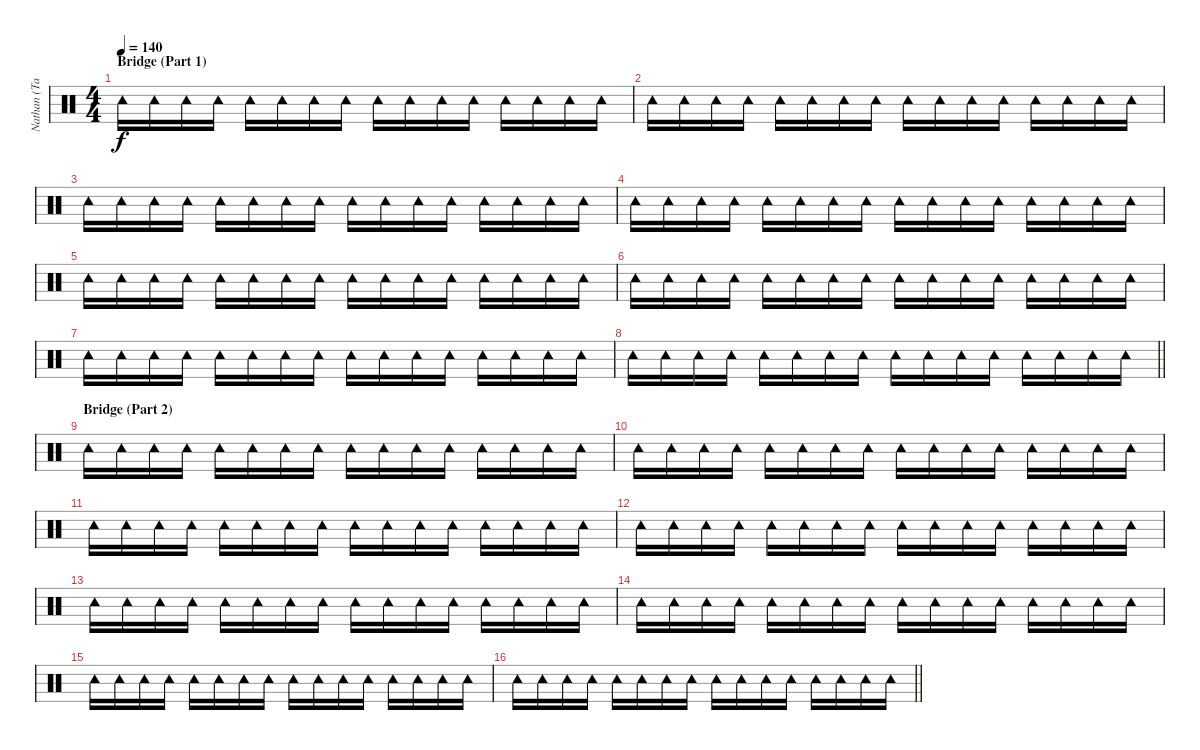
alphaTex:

\track ("Nathan (Tambourine)" "Nathan (Ta") {instrument percussion}
\staff {score}
\articulation defaults
\ts (4 4)
\section ("" "Bridge (Part 1)")
\tempo 140
\clef neutral
\ks c "Tambourine (hit)".16{dy f} "Tambourine (hit)".16 "Tambourine (hit)".16 "Tambourine (hit)".16 "Tambourine (hit)".16 "Tambourine (hit)".16 "Tambourine (hit)".16 "Tambourine (hit)".16 "Tambourine (hit)".16 "Tambourine (hit)".16 "Tambourine (hit)".16 "Tambourine (hit)".16 "Tambourine (hit)".16 "Tambourine (hit)".16 "Tambourine (hit)".16 "Tambourine (hit)".16
|
"Tambourine (hit)".16 "Tambourine (hit)".16 "Tambourine (hit)".16 "Tambourine (hit)".16 "Tambourine (hit)".16 "Tambourine (hit)".16 "Tambourine (hit)".16 "Tambourine (hit)".16 "Tambourine (hit)".16 "Tambourine (hit)".16 "Tambourine (hit)".16 "Tambourine (hit)".16 "Tambourine (hit)".16 "Tambourine (hit)".16 "Tambourine (hit)".16 "Tambourine (hit)".16 |
"Tambourine (hit)".16 "Tambourine (hit)".16 "Tambourine (hit)".16 "Tambourine (hit)".16 "Tambourine (hit)".16 "Tambourine (hit)".16 "Tambourine (hit)".16 "Tambourine (hit)".16 "Tambourine (hit)".16 "Tambourine (hit)".16 "Tambourine (hit)".16 "Tambourine (hit)".16 "Tambourine (hit)".16 "Tambourine (hit)".16 "Tambourine (hit)".16 "Tambourine (hit)".16 |
"Tambourine (hit)".16 "Tambourine (hit)".16 "Tambourine (hit)".16 "Tambourine (hit)".16 "Tambourine (hit)".16 "Tambourine (hit)".16 "Tambourine (hit)".16 "Tambourine (hit)".16 "Tambourine (hit)".16 "Tambourine (hit)".16 "Tambourine (hit)".16 "Tambourine (hit)".16 "Tambourine (hit)".16 "Tambourine (hit)".16 "Tambourine (hit)".16 "Tambourine (hit)".16 |
"Tambourine (hit)".16 "Tambourine (hit)".16 "Tambourine (hit)".16 "Tambourine (hit)".16 "Tambourine (hit)".16 "Tambourine (hit)".16 "Tambourine (hit)".16 "Tambourine (hit)".16 "Tambourine (hit)".16 "Tambourine (hit)".16 "Tambourine (hit)".16 "Tambourine (hit)".16 "Tambourine (hit)".16 "Tambourine (hit)".16 "Tambourine (hit)".16 "Tambourine (hit)".16 |
"Tambourine (hit)".16 "Tambourine (hit)".16 "Tambourine (hit)".16 "Tambourine (hit)".16 "Tambourine (hit)".16 "Tambourine (hit)".16 "Tambourine (hit)".16 "Tambourine (hit)".16 "Tambourine (hit)".16 "Tambourine (hit)".16 "Tambourine (hit)".16 "Tambourine (hit)".16 "Tambourine (hit)".16 "Tambourine (hit)".16 "Tambourine (hit)".16 "Tambourine (hit)".16 |
"Tambourine (hit)".16 "Tambourine (hit)".16 "Tambourine (hit)".16 "Tambourine (hit)".16 "Tambourine (hit)".16 "Tambourine (hit)".16 "Tambourine (hit)".16 "Tambourine (hit)".16 "Tambourine (hit)".16 "Tambourine (hit)".16 "Tambourine (hit)".16 "Tambourine (hit)".16 "Tambourine (hit)".16 "Tambourine (hit)".16 "Tambourine (hit)".16 "Tambourine (hit)".16 |
\barLineRight lightlight "Tambourine (hit)".16 "Tambourine (hit)".16 "Tambourine (hit)".16 "Tambourine (hit)".16 "Tambourine (hit)".16 "Tambourine (hit)".16 "Tambourine (hit)".16 "Tambourine (hit)".16 "Tambourine (hit)".16 "Tambourine (hit)".16 "Tambourine (hit)".16 "Tambourine (hit)".16 "Tambourine (hit)".16 "Tambourine (hit)".16 "Tambourine (hit)".16 "Tambourine (hit)".16
|
\section ("" "Bridge (Part 2)")
"Tambourine (hit)".16 "Tambourine (hit)".16 "Tambourine (hit)".16 "Tambourine (hit)".16 "Tambourine (hit)".16 "Tambourine (hit)".16 "Tambourine (hit)".16 "Tambourine (hit)".16 "Tambourine (hit)".16 "Tambourine (hit)".16 "Tambourine (hit)".16 "Tambourine (hit)".16 "Tambourine (hit)".16 "Tambourine (hit)".16 "Tambourine (hit)".16 "Tambourine (hit)".16 |
"Tambourine (hit)".16 "Tambourine (hit)".16 "Tambourine (hit)".16 "Tambourine (hit)".16 "Tambourine (hit)".16 "Tambourine (hit)".16 "Tambourine (hit)".16 "Tambourine (hit)".16 "Tambourine (hit)".16 "Tambourine (hit)".16 "Tambourine (hit)".16 "Tambourine (hit)".16 "Tambourine (hit)".16 "Tambourine (hit)".16 "Tambourine (hit)".16 "Tambourine (hit)".16 |
"Tambourine (hit)".16 "Tambourine (hit)".16 "Tambourine (hit)".16 "Tambourine (hit)".16 "Tambourine (hit)".16 "Tambourine (hit)".16 "Tambourine (hit)".16 "Tambourine (hit)".16 "Tambourine (hit)".16 "Tambourine (hit)".16 "Tambourine (hit)".16 "Tambourine (hit)".16 "Tambourine (hit)".16 "Tambourine (hit)".16 "Tambourine (hit)".16 "Tambourine (hit)".16 |
"Tambourine (hit)".16 "Tambourine (hit)".16 "Tambourine (hit)".16 "Tambourine (hit)".16 "Tambourine (hit)".16 "Tambourine (hit)".16 "Tambourine (hit)".16 "Tambourine (hit)".16 "Tambourine (hit)".16 "Tambourine (hit)".16 "Tambourine (hit)".16 "Tambourine (hit)".16 "Tambourine (hit)".16 "Tambourine (hit)".16 "Tambourine (hit)".16 "Tambourine (hit)".16 |
"Tambourine (hit)".16 "Tambourine (hit)".16 "Tambourine (hit)".16 "Tambourine (hit)".16 "Tambourine (hit)".16 "Tambourine (hit)".16 "Tambourine (hit)".16 "Tambourine (hit)".16 "Tambourine (hit)".16 "Tambourine (hit)".16 "Tambourine (hit)".16 "Tambourine (hit)".16 "Tambourine (hit)".16 "Tambourine (hit)".16 "Tambourine (hit)".16 "Tambourine (hit)".16 |
"Tambourine (hit)".16 "Tambourine (hit)".16 "Tambourine (hit)".16 "Tambourine (hit)".16 "Tambourine (hit)".16 "Tambourine (hit)".16 "Tambourine (hit)".16 "Tambourine (hit)".16 "Tambourine (hit)".16 "Tambourine (hit)".16 "Tambourine (hit)".16 "Tambourine (hit)".16 "Tambourine (hit)".16 "Tambourine (hit)".16 "Tambourine (hit)".16 "Tambourine (hit)".16 |
"Tambourine (hit)".16 "Tambourine (hit)".16 "Tambourine (hit)".16 "Tambourine (hit)".16 "Tambourine (hit)".16 "Tambourine (hit)".16 "Tambourine (hit)".16 "Tambourine (hit)".16 "Tambourine (hit)".16 "Tambourine (hit)".16 "Tambourine (hit)".16 "Tambourine (hit)".16 "Tambourine (hit)".16 "Tambourine (hit)".16 "Tambourine (hit)".16 "Tambourine (hit)".16 |
\barLineRight lightlight "Tambourine (hit)".16 "Tambourine (hit)".16 "Tambourine (hit)".16 "Tambourine (hit)".16 "Tambourine (hit)".16 "Tambourine (hit)".16 "Tambourine (hit)".16 "Tambourine (hit)".16 "Tambourine (hit)".16 "Tambourine (hit)".16 "Tambourine (hit)".16 "Tambourine (hit)".16 "Tambourine (hit)".16 "Tambourine (hit)".16 "Tambourine (hit)".16 "Tambourine (hit)".16
